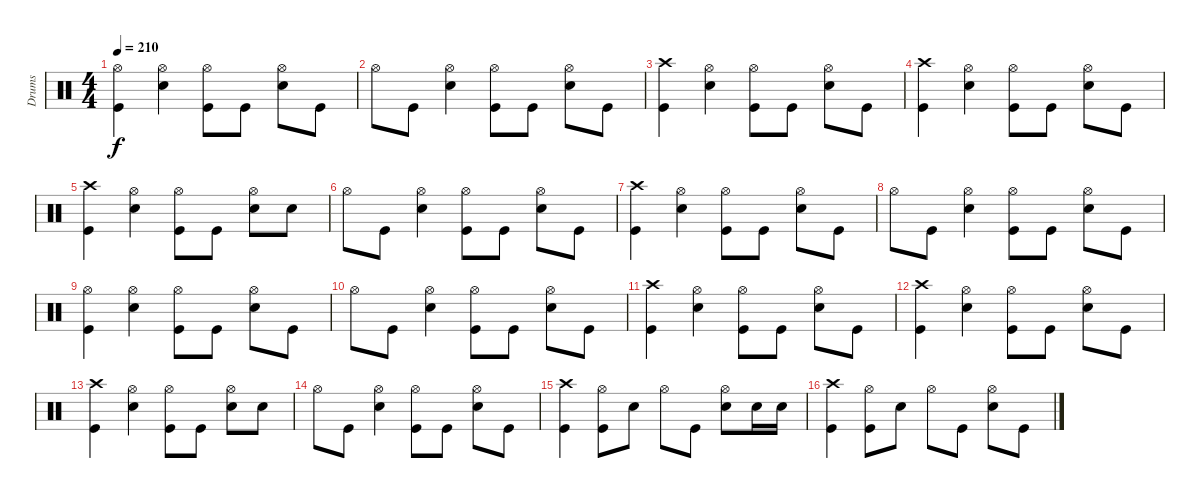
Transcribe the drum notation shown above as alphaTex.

\track ("Drums" "Drums") {instrument percussion}
\staff {score}
\articulation defaults
\ts (4 4)
\tempo 210
\clef neutral
\ks c
("Hi-Hat (open)" "Kick (hit)").4{dy f} ("Hi-Hat (open)" "Snare (hit) 2").4 ("Hi-Hat (open)" "Kick (hit)").8 "Kick (hit)".8 ("Hi-Hat (open)" "Snare (hit) 2").8 "Kick (hit)".8 |
"Hi-Hat (open)".8 "Kick (hit)".8 ("Hi-Hat (open)" "Snare (hit) 2").4 ("Hi-Hat (open)" "Kick (hit)").8 "Kick (hit)".8 ("Hi-Hat (open)" "Snare (hit) 2").8 "Kick (hit)".8 |
("Crash high (hit)" "Kick (hit)").4 ("Hi-Hat (open)" "Snare (hit) 2").4 ("Hi-Hat (open)" "Kick (hit)").8 "Kick (hit)".8 ("Hi-Hat (open)" "Snare (hit) 2").8 "Kick (hit)".8 |
("Crash high (hit)" "Kick (hit)").4 ("Hi-Hat (open)" "Snare (hit) 2").4 ("Hi-Hat (open)" "Kick (hit)").8 "Kick (hit)".8 ("Hi-Hat (open)" "Snare (hit) 2").8 "Kick (hit)".8 |
("Crash high (hit)" "Kick (hit)").4 ("Hi-Hat (open)" "Snare (hit) 2").4 ("Hi-Hat (open)" "Kick (hit)").8 "Kick (hit)".8 ("Hi-Hat (open)" "Snare (hit) 2").8 "Snare (hit) 2".8 |
"Hi-Hat (open)".8 "Kick (hit)".8 ("Hi-Hat (open)" "Snare (hit) 2").4 ("Hi-Hat (open)" "Kick (hit)").8 "Kick (hit)".8 ("Hi-Hat (open)" "Snare (hit) 2").8 "Kick (hit)".8 |
("Crash high (hit)" "Kick (hit)").4 ("Hi-Hat (open)" "Snare (hit) 2").4 ("Hi-Hat (open)" "Kick (hit)").8 "Kick (hit)".8 ("Hi-Hat (open)" "Snare (hit) 2").8 "Kick (hit)".8 |
"Hi-Hat (open)".8 "Kick (hit)".8 ("Hi-Hat (open)" "Snare (hit) 2").4 ("Hi-Hat (open)" "Kick (hit)").8 "Kick (hit)".8 ("Hi-Hat (open)" "Snare (hit) 2").8 "Kick (hit)".8 |
("Hi-Hat (open)" "Kick (hit)").4 ("Hi-Hat (open)" "Snare (hit) 2").4 ("Hi-Hat (open)" "Kick (hit)").8 "Kick (hit)".8 ("Hi-Hat (open)" "Snare (hit) 2").8 "Kick (hit)".8 |
"Hi-Hat (open)".8 "Kick (hit)".8 ("Hi-Hat (open)" "Snare (hit) 2").4 ("Hi-Hat (open)" "Kick (hit)").8 "Kick (hit)".8 ("Hi-Hat (open)" "Snare (hit) 2").8 "Kick (hit)".8 |
("Crash high (hit)" "Kick (hit)").4 ("Hi-Hat (open)" "Snare (hit) 2").4 ("Hi-Hat (open)" "Kick (hit)").8 "Kick (hit)".8 ("Hi-Hat (open)" "Snare (hit) 2").8 "Kick (hit)".8 |
("Crash high (hit)" "Kick (hit)").4 ("Hi-Hat (open)" "Snare (hit) 2").4 ("Hi-Hat (open)" "Kick (hit)").8 "Kick (hit)".8 ("Hi-Hat (open)" "Snare (hit) 2").8 "Kick (hit)".8 |
("Crash high (hit)" "Kick (hit)").4 ("Hi-Hat (open)" "Snare (hit) 2").4 ("Hi-Hat (open)" "Kick (hit)").8 "Kick (hit)".8 ("Hi-Hat (open)" "Snare (hit) 2").8 "Snare (hit) 2".8 |
"Hi-Hat (open)".8 "Kick (hit)".8 ("Hi-Hat (open)" "Snare (hit) 2").4 ("Hi-Hat (open)" "Kick (hit)").8 "Kick (hit)".8 ("Hi-Hat (open)" "Snare (hit) 2").8 "Kick (hit)".8 |
("Crash high (hit)" "Kick (hit)").4 ("Hi-Hat (open)" "Kick (hit)").8 "Snare (hit) 2".8 "Hi-Hat (open)".8 "Kick (hit)".8 ("Hi-Hat (open)" "Snare (hit) 2").8 "Snare (hit) 2".16 "Snare (hit) 2".16 |
("Crash high (hit)" "Kick (hit)").4 ("Hi-Hat (open)" "Kick (hit)").8 "Snare (hit) 2".8 "Hi-Hat (open)".8 "Kick (hit)".8 ("Hi-Hat (open)" "Snare (hit) 2").8 "Kick (hit)".8
